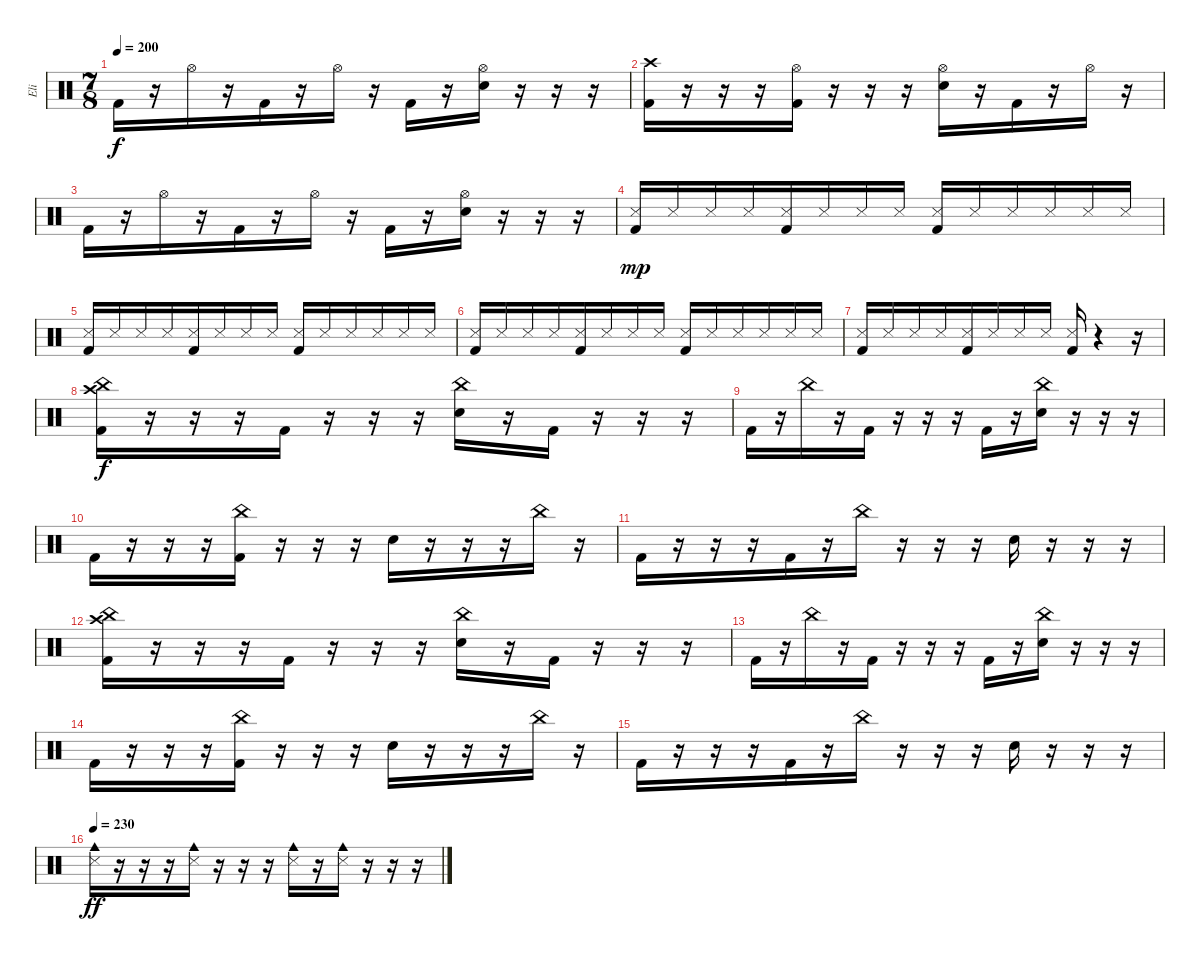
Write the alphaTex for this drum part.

\track ("Eli" "Eli") {instrument percussion}
\staff {score}
\articulation defaults
\ts (7 8)
\tempo 200
\clef neutral
\ks c "Kick (hit) 2".16{dy f}
r.16 "Hi-Hat (open)".16 r.16 "Kick (hit) 2".16 r.16 "Hi-Hat (open)".16 r.16 "Kick (hit) 2".16 r.16 ("Hi-Hat (open)" "Snare (hit) 2").16 r.16 r.16 r.16 |
("Crash high (hit)" "Kick (hit) 2").16 r.16 r.16 r.16 ("Hi-Hat (open)" "Kick (hit) 2").16 r.16 r.16 r.16 ("Hi-Hat (open)" "Snare (hit) 2").16 r.16 "Kick (hit) 2".16 r.16 "Hi-Hat (open)".16 r.16 |
"Kick (hit) 2".16 r.16 "Hi-Hat (open)".16 r.16 "Kick (hit) 2".16 r.16 "Hi-Hat (open)".16 r.16 "Kick (hit) 2".16 r.16 ("Hi-Hat (open)" "Snare (hit) 2").16 r.16 r.16 r.16 |
("Snare (side stick) 3" "Kick (hit) 2").16{dy mp} "Snare (side stick) 3".16 "Snare (side stick) 3".16 "Snare (side stick) 3".16 ("Snare (side stick) 3" "Kick (hit) 2").16 "Snare (side stick) 3".16 "Snare (side stick) 3".16 "Snare (side stick) 3".16 ("Snare (side stick) 3" "Kick (hit) 2").16 "Snare (side stick) 3".16 "Snare (side stick) 3".16 "Snare (side stick) 3".16 "Snare (side stick) 3".16 "Snare (side stick) 3".16 |
("Snare (side stick) 3" "Kick (hit) 2").16 "Snare (side stick) 3".16 "Snare (side stick) 3".16 "Snare (side stick) 3".16 ("Snare (side stick) 3" "Kick (hit) 2").16 "Snare (side stick) 3".16 "Snare (side stick) 3".16 "Snare (side stick) 3".16 ("Snare (side stick) 3" "Kick (hit) 2").16 "Snare (side stick) 3".16 "Snare (side stick) 3".16 "Snare (side stick) 3".16 "Snare (side stick) 3".16 "Snare (side stick) 3".16 |
("Snare (side stick) 3" "Kick (hit) 2").16 "Snare (side stick) 3".16 "Snare (side stick) 3".16 "Snare (side stick) 3".16 ("Snare (side stick) 3" "Kick (hit) 2").16 "Snare (side stick) 3".16 "Snare (side stick) 3".16 "Snare (side stick) 3".16 ("Snare (side stick) 3" "Kick (hit) 2").16 "Snare (side stick) 3".16 "Snare (side stick) 3".16 "Snare (side stick) 3".16 "Snare (side stick) 3".16 "Snare (side stick) 3".16 |
("Snare (side stick) 3" "Kick (hit) 2").16 "Snare (side stick) 3".16 "Snare (side stick) 3".16 "Snare (side stick) 3".16 ("Snare (side stick) 3" "Kick (hit) 2").16 "Snare (side stick) 3".16 "Snare (side stick) 3".16 "Snare (side stick) 3".16 ("Snare (side stick) 3" "Kick (hit) 2").16 r.4 r.16 |
("China (hit)" "Crash high (hit)" "Kick (hit) 2").16{dy f} r.16 r.16 r.16 "Kick (hit) 2".16 r.16 r.16 r.16 ("China (hit)" "Snare (hit) 2").16 r.16 "Kick (hit) 2".16 r.16 r.16 r.16 |
"Kick (hit) 2".16 r.16 "China (hit)".16 r.16 "Kick (hit) 2".16 r.16 r.16 r.16 "Kick (hit) 2".16 r.16 ("China (hit)" "Snare (hit) 2").16 r.16 r.16 r.16 |
"Kick (hit) 2".16 r.16 r.16 r.16 ("China (hit)" "Kick (hit) 2").16 r.16 r.16 r.16 "Snare (hit) 2".16 r.16 r.16 r.16 "China (hit)".16 r.16 |
"Kick (hit) 2".16 r.16 r.16 r.16 "Kick (hit) 2".16 r.16 "China (hit)".16 r.16 r.16 r.16 "Snare (hit) 2".16 r.16 r.16 r.16 |
("China (hit)" "Crash high (hit)" "Kick (hit) 2").16 r.16 r.16 r.16 "Kick (hit) 2".16 r.16 r.16 r.16 ("China (hit)" "Snare (hit) 2").16 r.16 "Kick (hit) 2".16 r.16 r.16 r.16 |
"Kick (hit) 2".16 r.16 "China (hit)".16 r.16 "Kick (hit) 2".16 r.16 r.16 r.16 "Kick (hit) 2".16 r.16 ("China (hit)" "Snare (hit) 2").16 r.16 r.16 r.16 |
"Kick (hit) 2".16 r.16 r.16 r.16 ("China (hit)" "Kick (hit) 2").16 r.16 r.16 r.16 "Snare (hit) 2".16 r.16 r.16 r.16 "China (hit)".16 r.16 |
"Kick (hit) 2".16 r.16 r.16 r.16 "Kick (hit) 2".16 r.16 "China (hit)".16 r.16 r.16 r.16 "Snare (hit) 2".16 r.16 r.16 r.16 |
\tempo 230
("Cowbell medium (hit)" "Snare (side stick) 3").16{dy ff} r.16 r.16 r.16 ("Cowbell medium (hit)" "Snare (side stick) 3").16 r.16 r.16 r.16 ("Cowbell medium (hit)" "Snare (side stick) 3").16 r.16 ("Cowbell medium (hit)" "Snare (side stick) 3").16 r.16 r.16 r.16
